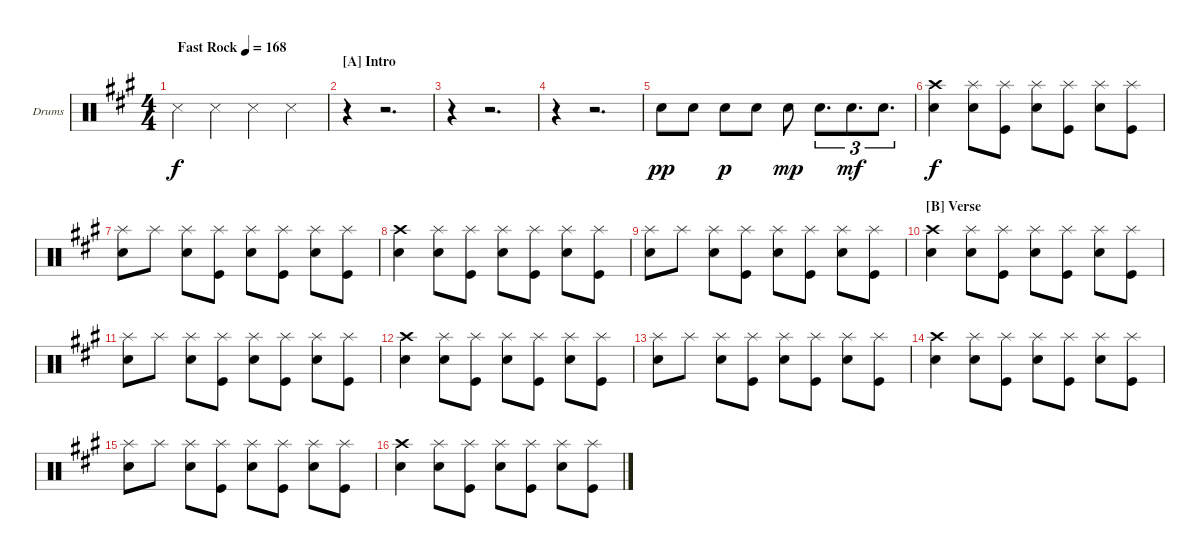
\defaultSystemsLayout 4
\bracketExtendMode groupsimilarinstruments
\firstSystemTrackNameOrientation horizontal
\otherSystemsTrackNameOrientation horizontal
\track ("Drumkit" "Drums") {instrument percussion}
\staff {score}
\articulation defaults
\ts (4 4)
\tempo (168 "Fast Rock")
\clef neutral
\scale
1.08827
\ks a "Snare (side stick) 3".4{dy f} "Snare (side stick) 3".4 "Snare (side stick) 3".4 "Snare (side stick) 3".4
|
\section ("A" "Intro")
\scale
0.911728 r.4 r.2{d} |
\scale
1.05801 r.4 r.2{d} |
\scale
0.941992 r.4 r.2{d} |
\scale
1.05801 "Snare (hit) 2".8{dy pp} "Snare (hit) 2".8 "Snare (hit) 2".8{dy p} "Snare (hit) 2".8 "Snare (hit) 2".8{dy mp} "Snare (hit) 2".8{d tu (3 2)} "Snare (hit) 2".8{d tu (3 2) dy mf} "Snare (hit) 2".8{d tu (3 2)} |
\scale
0.941992 ("Crash high (hit)" "Snare (hit) 2").4{dy f} ("Splash (hit)" "Snare (hit) 2").8 ("Splash (hit)" "Kick (hit)").8 ("Splash (hit)" "Snare (hit) 2").8 ("Splash (hit)" "Kick (hit)").8 ("Splash (hit)" "Snare (hit) 2").8 ("Splash (hit)" "Kick (hit)").8 |
\scale
1.05801 ("Splash (hit)" "Snare (hit) 2").8 "Splash (hit)".8 ("Splash (hit)" "Snare (hit) 2").8 ("Splash (hit)" "Kick (hit)").8 ("Splash (hit)" "Snare (hit) 2").8 ("Splash (hit)" "Kick (hit)").8 ("Splash (hit)" "Snare (hit) 2").8 ("Splash (hit)" "Kick (hit)").8 |
\scale
0.941992 ("Crash high (hit)" "Snare (hit) 2").4 ("Splash (hit)" "Snare (hit) 2").8 ("Splash (hit)" "Kick (hit)").8 ("Splash (hit)" "Snare (hit) 2").8 ("Splash (hit)" "Kick (hit)").8 ("Splash (hit)" "Snare (hit) 2").8 ("Splash (hit)" "Kick (hit)").8 |
\scale
1.05801 ("Splash (hit)" "Snare (hit) 2").8 "Splash (hit)".8 ("Splash (hit)" "Snare (hit) 2").8 ("Splash (hit)" "Kick (hit)").8 ("Splash (hit)" "Snare (hit) 2").8 ("Splash (hit)" "Kick (hit)").8 ("Splash (hit)" "Snare (hit) 2").8 ("Splash (hit)" "Kick (hit)").8 |
\section ("B" "Verse")
\scale
0.941992 ("Crash high (hit)" "Snare (hit) 2").4 ("Splash (hit)" "Snare (hit) 2").8 ("Splash (hit)" "Kick (hit)").8 ("Splash (hit)" "Snare (hit) 2").8 ("Splash (hit)" "Kick (hit)").8 ("Splash (hit)" "Snare (hit) 2").8 ("Splash (hit)" "Kick (hit)").8 |
\scale
1.05801 ("Splash (hit)" "Snare (hit) 2").8 "Splash (hit)".8 ("Splash (hit)" "Snare (hit) 2").8 ("Splash (hit)" "Kick (hit)").8 ("Splash (hit)" "Snare (hit) 2").8 ("Splash (hit)" "Kick (hit)").8 ("Splash (hit)" "Snare (hit) 2").8 ("Splash (hit)" "Kick (hit)").8 |
\scale
0.941992 ("Crash high (hit)" "Snare (hit) 2").4 ("Splash (hit)" "Snare (hit) 2").8 ("Splash (hit)" "Kick (hit)").8 ("Splash (hit)" "Snare (hit) 2").8 ("Splash (hit)" "Kick (hit)").8 ("Splash (hit)" "Snare (hit) 2").8 ("Splash (hit)" "Kick (hit)").8 |
\scale
1.05801 ("Splash (hit)" "Snare (hit) 2").8 "Splash (hit)".8 ("Splash (hit)" "Snare (hit) 2").8 ("Splash (hit)" "Kick (hit)").8 ("Splash (hit)" "Snare (hit) 2").8 ("Splash (hit)" "Kick (hit)").8 ("Splash (hit)" "Snare (hit) 2").8 ("Splash (hit)" "Kick (hit)").8 |
\scale
0.941992 ("Crash high (hit)" "Snare (hit) 2").4 ("Splash (hit)" "Snare (hit) 2").8 ("Splash (hit)" "Kick (hit)").8 ("Splash (hit)" "Snare (hit) 2").8 ("Splash (hit)" "Kick (hit)").8 ("Splash (hit)" "Snare (hit) 2").8 ("Splash (hit)" "Kick (hit)").8 |
\scale
1.05801 ("Splash (hit)" "Snare (hit) 2").8 "Splash (hit)".8 ("Splash (hit)" "Snare (hit) 2").8 ("Splash (hit)" "Kick (hit)").8 ("Splash (hit)" "Snare (hit) 2").8 ("Splash (hit)" "Kick (hit)").8 ("Splash (hit)" "Snare (hit) 2").8 ("Splash (hit)" "Kick (hit)").8 |
\scale
0.941992 ("Crash high (hit)" "Snare (hit) 2").4 ("Splash (hit)" "Snare (hit) 2").8 ("Splash (hit)" "Kick (hit)").8 ("Splash (hit)" "Snare (hit) 2").8 ("Splash (hit)" "Kick (hit)").8 ("Splash (hit)" "Snare (hit) 2").8 ("Splash (hit)" "Kick (hit)").8
